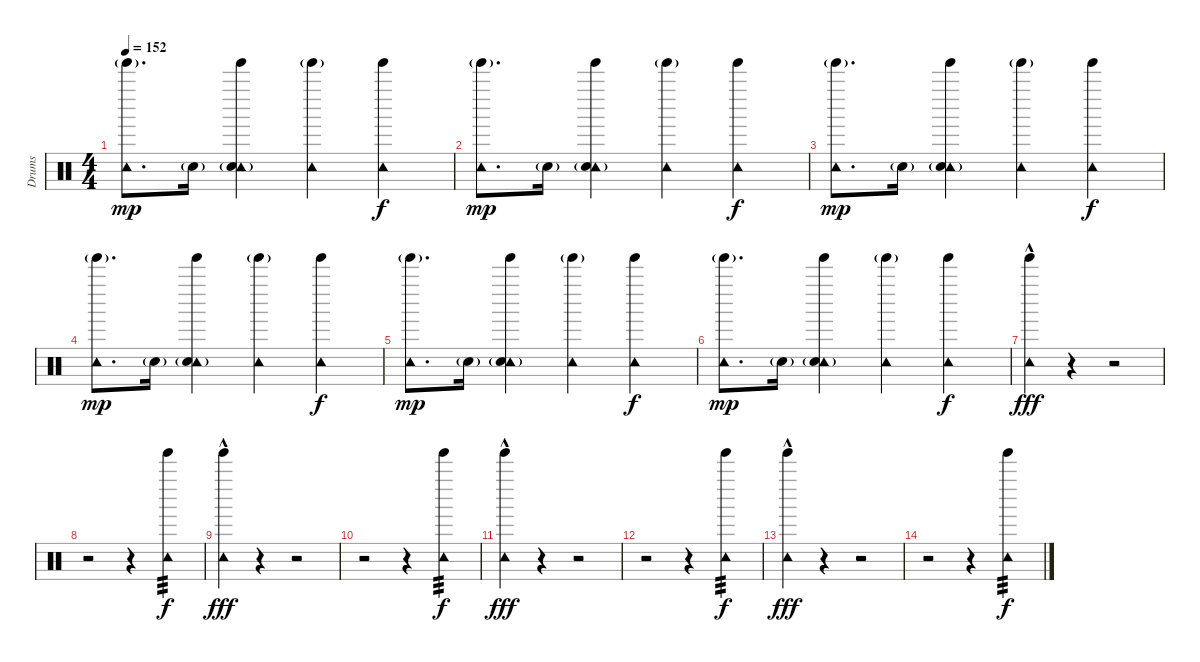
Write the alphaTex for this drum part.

\track ("Drums" "Drums") {instrument percussion}
\staff {score}
\articulation defaults
\ts (4 4)
\tempo 152
\clef neutral
\ks c
("Tambourine (hit)" "Tinkle Bell (hit)"{g}).8{d dy mp} "Snare (hit) 2"{g}.16 ("Tambourine (hit)" "Tinkle Bell (hit)" "Snare (hit) 2"{g}).4 ("Tambourine (hit)" "Tinkle Bell (hit)"{g}).4 ("Tambourine (hit)" "Tinkle Bell (hit)").4{dy f} |
("Tambourine (hit)" "Tinkle Bell (hit)"{g}).8{d dy mp} "Snare (hit) 2"{g}.16 ("Tambourine (hit)" "Tinkle Bell (hit)" "Snare (hit) 2"{g}).4 ("Tambourine (hit)" "Tinkle Bell (hit)"{g}).4 ("Tambourine (hit)" "Tinkle Bell (hit)").4{dy f} |
("Tambourine (hit)" "Tinkle Bell (hit)"{g}).8{d dy mp} "Snare (hit) 2"{g}.16 ("Tambourine (hit)" "Tinkle Bell (hit)" "Snare (hit) 2"{g}).4 ("Tambourine (hit)" "Tinkle Bell (hit)"{g}).4 ("Tambourine (hit)" "Tinkle Bell (hit)").4{dy f} |
("Tambourine (hit)" "Tinkle Bell (hit)"{g}).8{d dy mp} "Snare (hit) 2"{g}.16 ("Tambourine (hit)" "Tinkle Bell (hit)" "Snare (hit) 2"{g}).4 ("Tambourine (hit)" "Tinkle Bell (hit)"{g}).4 ("Tambourine (hit)" "Tinkle Bell (hit)").4{dy f} |
("Tambourine (hit)" "Tinkle Bell (hit)"{g}).8{d dy mp} "Snare (hit) 2"{g}.16 ("Tambourine (hit)" "Tinkle Bell (hit)" "Snare (hit) 2"{g}).4 ("Tambourine (hit)" "Tinkle Bell (hit)"{g}).4 ("Tambourine (hit)" "Tinkle Bell (hit)").4{dy f} |
("Tambourine (hit)" "Tinkle Bell (hit)"{g}).8{d dy mp} "Snare (hit) 2"{g}.16 ("Tambourine (hit)" "Tinkle Bell (hit)" "Snare (hit) 2"{g}).4 ("Tambourine (hit)" "Tinkle Bell (hit)"{g}).4 ("Tambourine (hit)" "Tinkle Bell (hit)").4{dy f} |
("Tambourine (hit)"{hac} "Tinkle Bell (hit)"{hac}).4{dy fff} r.4 r.2 |
r.2 r.4 ("Tambourine (hit)" "Tinkle Bell (hit)").4{tp 3 dy f} |
("Tambourine (hit)"{hac} "Tinkle Bell (hit)"{hac}).4{dy fff} r.4 r.2 |
r.2 r.4 ("Tambourine (hit)" "Tinkle Bell (hit)").4{tp 3 dy f} |
("Tambourine (hit)"{hac} "Tinkle Bell (hit)"{hac}).4{dy fff} r.4 r.2 |
r.2 r.4 ("Tambourine (hit)" "Tinkle Bell (hit)").4{tp 3 dy f} |
("Tambourine (hit)"{hac} "Tinkle Bell (hit)"{hac}).4{dy fff} r.4 r.2 |
r.2 r.4 ("Tambourine (hit)" "Tinkle Bell (hit)").4{tp 3 dy f}
